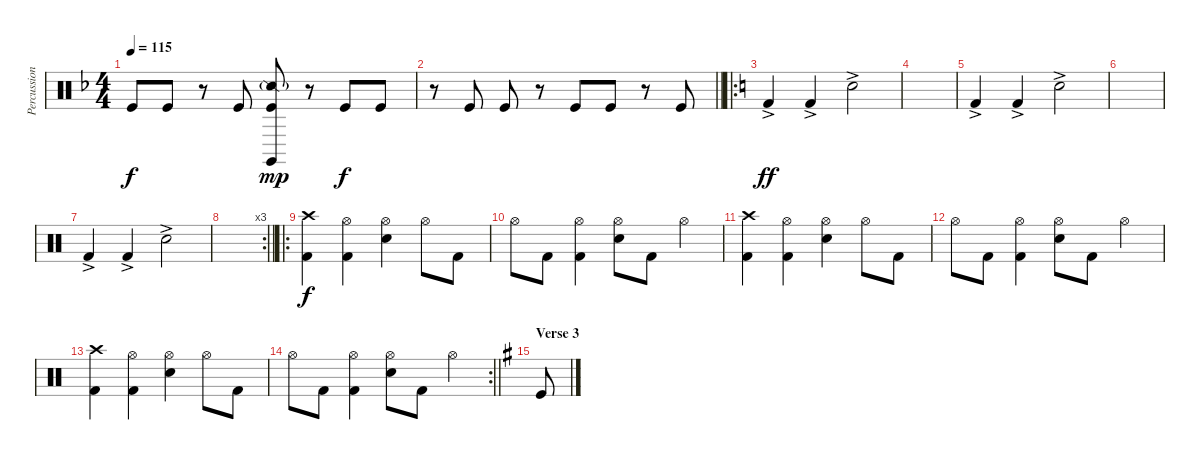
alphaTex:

\track ("Percussion" "Percussion") {instrument percussion}
\staff {score}
\articulation defaults
\ts (4 4)
\tempo 115
\clef neutral
\ks f "Kick (hit)".8{dy f} "Kick (hit)".8
r.8 "Kick (hit)".8 ("Snare (side stick) 2"{g} "Claves (hit)" "Kick (hit)").8{dy mp} r.8 "Kick (hit)".8{dy f} "Kick (hit)".8 |
\barLineRight lightlight
r.8 "Kick (hit)".8 "Kick (hit)".8 r.8 "Kick (hit)".8 "Kick (hit)".8 r.8 "Kick (hit)".8 |
\ro
\ks c "Kick (hit) 2"{ac}.4{dy ff} "Kick (hit) 2"{ac}.4 "Electric Snare (hit)"{ac}.2
|
|
"Kick (hit) 2"{ac}.4 "Kick (hit) 2"{ac}.4 "Electric Snare (hit)"{ac}.2 |
|
"Kick (hit) 2"{ac}.4 "Kick (hit) 2"{ac}.4 "Electric Snare (hit)"{ac}.2 |
\rc 3
\barLineRight lightlight
|
\ro
("Crash high (hit)" "Kick (hit) 2").4{dy f} ("Hi-Hat (open)" "Kick (hit) 2").4 ("Hi-Hat (open)" "Electric Snare (hit)").4 "Hi-Hat (open)".8 "Kick (hit) 2".8 |
"Hi-Hat (open)".8 "Kick (hit) 2".8 ("Hi-Hat (open)" "Kick (hit) 2").4 ("Hi-Hat (open)" "Electric Snare (hit)").8 "Kick (hit) 2".8 "Hi-Hat (open)".4 |
("Crash high (hit)" "Kick (hit) 2").4 ("Hi-Hat (open)" "Kick (hit) 2").4 ("Hi-Hat (open)" "Electric Snare (hit)").4 "Hi-Hat (open)".8 "Kick (hit) 2".8 |
"Hi-Hat (open)".8 "Kick (hit) 2".8 ("Hi-Hat (open)" "Kick (hit) 2").4 ("Hi-Hat (open)" "Electric Snare (hit)").8 "Kick (hit) 2".8 "Hi-Hat (open)".4 |
("Crash high (hit)" "Kick (hit) 2").4 ("Hi-Hat (open)" "Kick (hit) 2").4 ("Hi-Hat (open)" "Electric Snare (hit)").4 "Hi-Hat (open)".8 "Kick (hit) 2".8 |
\rc 2
\barLineRight lightlight "Hi-Hat (open)".8 "Kick (hit) 2".8
("Hi-Hat (open)" "Kick (hit) 2").4 ("Hi-Hat (open)" "Electric Snare (hit)").8 "Kick (hit) 2".8 "Hi-Hat (open)".4 |
\section ("" "Verse 3")
\ks g "Kick (hit)".8
